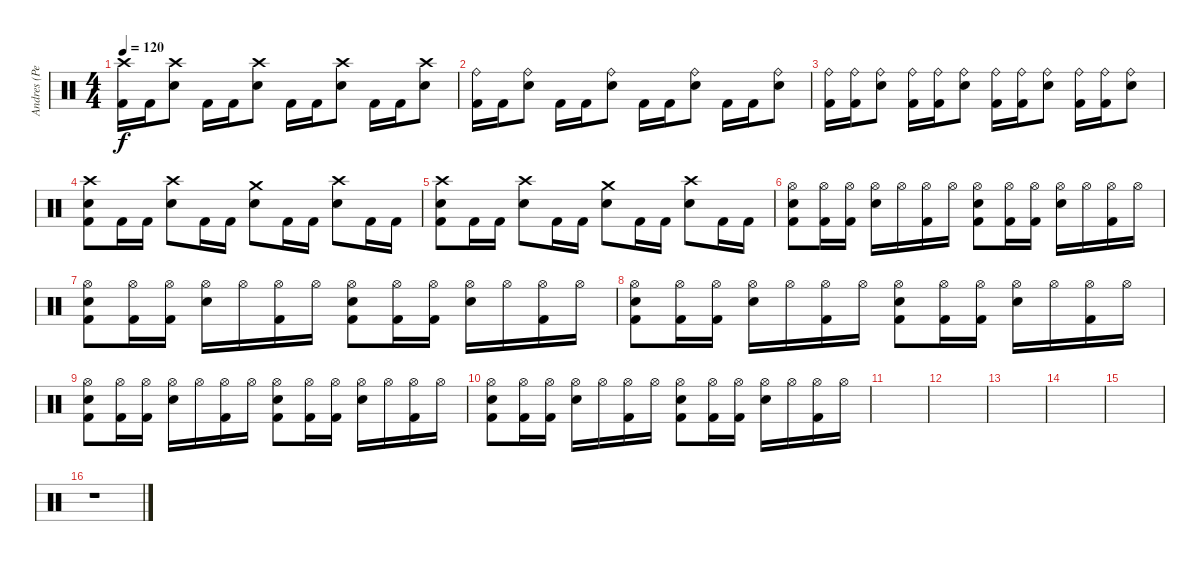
\track ("Andres (Percussion)" "Andres (Pe") {instrument percussion}
\staff {score}
\articulation defaults
\ts (4 4)
\tempo 120
\clef neutral
\ks c
("Crash high (hit)" "Kick (hit) 2").16{dy f} "Kick (hit) 2".16 ("Crash high (hit)" "Electric Snare (hit)").8 "Kick (hit) 2".16 "Kick (hit) 2".16 ("Crash high (hit)" "Electric Snare (hit)").8 "Kick (hit) 2".16 "Kick (hit) 2".16 ("Crash high (hit)" "Electric Snare (hit)").8 "Kick (hit) 2".16 "Kick (hit) 2".16 ("Crash high (hit)" "Electric Snare (hit)").8 |
("Ride (bell)" "Kick (hit) 2").16 "Kick (hit) 2".16 ("Ride (bell)" "Electric Snare (hit)").8 "Kick (hit) 2".16 "Kick (hit) 2".16 ("Ride (bell)" "Electric Snare (hit)").8 "Kick (hit) 2".16 "Kick (hit) 2".16 ("Ride (bell)" "Electric Snare (hit)").8 "Kick (hit) 2".16 "Kick (hit) 2".16 ("Ride (bell)" "Electric Snare (hit)").8 |
("Ride (bell)" "Kick (hit) 2").16 ("Ride (bell)" "Kick (hit) 2").16 ("Ride (bell)" "Electric Snare (hit)").8 ("Ride (bell)" "Kick (hit) 2").16 ("Ride (bell)" "Kick (hit) 2").16 ("Ride (bell)" "Electric Snare (hit)").8 ("Ride (bell)" "Kick (hit) 2").16 ("Ride (bell)" "Kick (hit) 2").16 ("Ride (bell)" "Electric Snare (hit)").8 ("Ride (bell)" "Kick (hit) 2").16 ("Ride (bell)" "Kick (hit) 2").16 ("Ride (bell)" "Electric Snare (hit)").8 |
("Crash high (hit)" "Electric Snare (hit)" "Kick (hit) 2").8 "Kick (hit) 2".16 "Kick (hit) 2".16 ("Crash high (hit)" "Electric Snare (hit)").8 "Kick (hit) 2".16 "Kick (hit) 2".16 ("Crash medium (hit)" "Electric Snare (hit)").8 "Kick (hit) 2".16 "Kick (hit) 2".16 ("Crash high (hit)" "Electric Snare (hit)").8 "Kick (hit) 2".16 "Kick (hit) 2".16 |
("Crash high (hit)" "Electric Snare (hit)" "Kick (hit) 2").8 "Kick (hit) 2".16 "Kick (hit) 2".16 ("Crash high (hit)" "Electric Snare (hit)").8 "Kick (hit) 2".16 "Kick (hit) 2".16 ("Crash medium (hit)" "Electric Snare (hit)").8 "Kick (hit) 2".16 "Kick (hit) 2".16 ("Crash high (hit)" "Electric Snare (hit)").8 "Kick (hit) 2".16 "Kick (hit) 2".16 |
("Hi-Hat (open)" "Electric Snare (hit)" "Kick (hit) 2").8 ("Hi-Hat (open)" "Kick (hit) 2").16 ("Hi-Hat (open)" "Kick (hit) 2").16 ("Hi-Hat (open)" "Electric Snare (hit)").16 "Hi-Hat (open)".16 ("Hi-Hat (open)" "Kick (hit) 2").16 "Hi-Hat (open)".16 ("Hi-Hat (open)" "Electric Snare (hit)" "Kick (hit) 2").8 ("Hi-Hat (open)" "Kick (hit) 2").16 ("Hi-Hat (open)" "Kick (hit) 2").16 ("Hi-Hat (open)" "Electric Snare (hit)").16 "Hi-Hat (open)".16 ("Hi-Hat (open)" "Kick (hit) 2").16 "Hi-Hat (open)".16 |
("Hi-Hat (open)" "Electric Snare (hit)" "Kick (hit) 2").8 ("Hi-Hat (open)" "Kick (hit) 2").16 ("Hi-Hat (open)" "Kick (hit) 2").16 ("Hi-Hat (open)" "Electric Snare (hit)").16 "Hi-Hat (open)".16 ("Hi-Hat (open)" "Kick (hit) 2").16 "Hi-Hat (open)".16 ("Hi-Hat (open)" "Electric Snare (hit)" "Kick (hit) 2").8 ("Hi-Hat (open)" "Kick (hit) 2").16 ("Hi-Hat (open)" "Kick (hit) 2").16 ("Hi-Hat (open)" "Electric Snare (hit)").16 "Hi-Hat (open)".16 ("Hi-Hat (open)" "Kick (hit) 2").16 "Hi-Hat (open)".16 |
("Hi-Hat (open)" "Electric Snare (hit)" "Kick (hit) 2").8 ("Hi-Hat (open)" "Kick (hit) 2").16 ("Hi-Hat (open)" "Kick (hit) 2").16 ("Hi-Hat (open)" "Electric Snare (hit)").16 "Hi-Hat (open)".16 ("Hi-Hat (open)" "Kick (hit) 2").16 "Hi-Hat (open)".16 ("Hi-Hat (open)" "Electric Snare (hit)" "Kick (hit) 2").8 ("Hi-Hat (open)" "Kick (hit) 2").16 ("Hi-Hat (open)" "Kick (hit) 2").16 ("Hi-Hat (open)" "Electric Snare (hit)").16 "Hi-Hat (open)".16 ("Hi-Hat (open)" "Kick (hit) 2").16 "Hi-Hat (open)".16 |
("Hi-Hat (open)" "Electric Snare (hit)" "Kick (hit) 2").8 ("Hi-Hat (open)" "Kick (hit) 2").16 ("Hi-Hat (open)" "Kick (hit) 2").16 ("Hi-Hat (open)" "Electric Snare (hit)").16 "Hi-Hat (open)".16 ("Hi-Hat (open)" "Kick (hit) 2").16 "Hi-Hat (open)".16 ("Hi-Hat (open)" "Electric Snare (hit)" "Kick (hit) 2").8 ("Hi-Hat (open)" "Kick (hit) 2").16 ("Hi-Hat (open)" "Kick (hit) 2").16 ("Hi-Hat (open)" "Electric Snare (hit)").16 "Hi-Hat (open)".16 ("Hi-Hat (open)" "Kick (hit) 2").16 "Hi-Hat (open)".16 |
("Hi-Hat (open)" "Electric Snare (hit)" "Kick (hit) 2").8 ("Hi-Hat (open)" "Kick (hit) 2").16 ("Hi-Hat (open)" "Kick (hit) 2").16 ("Hi-Hat (open)" "Electric Snare (hit)").16 "Hi-Hat (open)".16 ("Hi-Hat (open)" "Kick (hit) 2").16 "Hi-Hat (open)".16 ("Hi-Hat (open)" "Electric Snare (hit)" "Kick (hit) 2").8 ("Hi-Hat (open)" "Kick (hit) 2").16 ("Hi-Hat (open)" "Kick (hit) 2").16 ("Hi-Hat (open)" "Electric Snare (hit)").16 "Hi-Hat (open)".16 ("Hi-Hat (open)" "Kick (hit) 2").16 "Hi-Hat (open)".16 |
|
|
|
|
|
r.1
